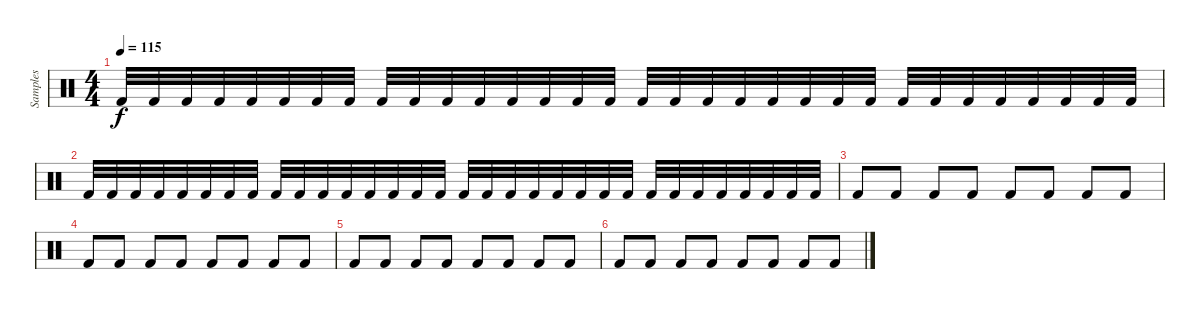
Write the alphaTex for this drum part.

\track ("Samples" "Samples") {instrument percussion}
\staff {score}
\articulation defaults
\ts (4 4)
\tempo 115
\clef neutral
\ks c "Kick (hit) 2".32{dy f} "Kick (hit) 2".32 "Kick (hit) 2".32 "Kick (hit) 2".32 "Kick (hit) 2".32 "Kick (hit) 2".32 "Kick (hit) 2".32 "Kick (hit) 2".32 "Kick (hit) 2".32 "Kick (hit) 2".32 "Kick (hit) 2".32 "Kick (hit) 2".32 "Kick (hit) 2".32 "Kick (hit) 2".32 "Kick (hit) 2".32 "Kick (hit) 2".32 "Kick (hit) 2".32 "Kick (hit) 2".32 "Kick (hit) 2".32 "Kick (hit) 2".32 "Kick (hit) 2".32 "Kick (hit) 2".32 "Kick (hit) 2".32 "Kick (hit) 2".32 "Kick (hit) 2".32 "Kick (hit) 2".32 "Kick (hit) 2".32 "Kick (hit) 2".32 "Kick (hit) 2".32 "Kick (hit) 2".32 "Kick (hit) 2".32 "Kick (hit) 2".32
|
"Kick (hit) 2".32 "Kick (hit) 2".32 "Kick (hit) 2".32 "Kick (hit) 2".32 "Kick (hit) 2".32 "Kick (hit) 2".32 "Kick (hit) 2".32 "Kick (hit) 2".32 "Kick (hit) 2".32 "Kick (hit) 2".32 "Kick (hit) 2".32 "Kick (hit) 2".32 "Kick (hit) 2".32 "Kick (hit) 2".32 "Kick (hit) 2".32 "Kick (hit) 2".32 "Kick (hit) 2".32 "Kick (hit) 2".32 "Kick (hit) 2".32 "Kick (hit) 2".32 "Kick (hit) 2".32 "Kick (hit) 2".32 "Kick (hit) 2".32 "Kick (hit) 2".32 "Kick (hit) 2".32 "Kick (hit) 2".32 "Kick (hit) 2".32 "Kick (hit) 2".32 "Kick (hit) 2".32 "Kick (hit) 2".32 "Kick (hit) 2".32 "Kick (hit) 2".32 |
"Kick (hit) 2".8 "Kick (hit) 2".8 "Kick (hit) 2".8 "Kick (hit) 2".8 "Kick (hit) 2".8 "Kick (hit) 2".8 "Kick (hit) 2".8 "Kick (hit) 2".8 |
"Kick (hit) 2".8 "Kick (hit) 2".8 "Kick (hit) 2".8 "Kick (hit) 2".8 "Kick (hit) 2".8 "Kick (hit) 2".8 "Kick (hit) 2".8 "Kick (hit) 2".8 |
"Kick (hit) 2".8 "Kick (hit) 2".8 "Kick (hit) 2".8 "Kick (hit) 2".8 "Kick (hit) 2".8 "Kick (hit) 2".8 "Kick (hit) 2".8 "Kick (hit) 2".8 |
"Kick (hit) 2".8 "Kick (hit) 2".8 "Kick (hit) 2".8 "Kick (hit) 2".8 "Kick (hit) 2".8 "Kick (hit) 2".8 "Kick (hit) 2".8 "Kick (hit) 2".8
